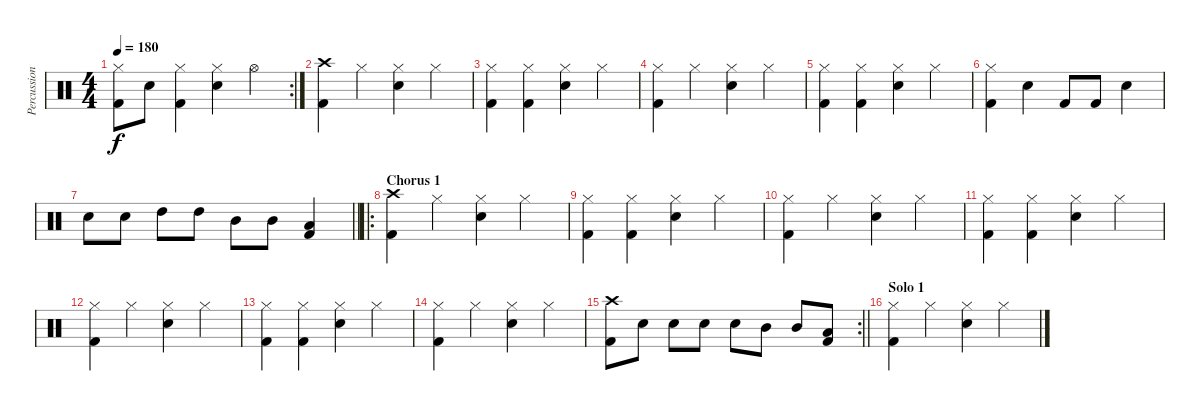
\track ("Percussion" "Percussion") {instrument percussion}
\staff {score}
\articulation defaults
\rc 2
\ts (4 4)
\tempo 180
\clef neutral
\ks c
("Hi-Hat (closed)" "Kick (hit) 2").8{dy f} "Snare (hit) 2".8 ("Hi-Hat (closed)" "Kick (hit) 2").4 ("Hi-Hat (closed)" "Snare (hit) 2").4 "Hi-Hat (open)".4 |
("Crash high (hit)" "Kick (hit) 2").4 "Hi-Hat (closed)".4 ("Hi-Hat (closed)" "Snare (hit) 2").4 "Hi-Hat (closed)".4 |
("Hi-Hat (closed)" "Kick (hit) 2").4 ("Hi-Hat (closed)" "Kick (hit) 2").4 ("Hi-Hat (closed)" "Snare (hit) 2").4 "Hi-Hat (closed)".4 |
("Hi-Hat (closed)" "Kick (hit) 2").4 "Hi-Hat (closed)".4 ("Hi-Hat (closed)" "Snare (hit) 2").4 "Hi-Hat (closed)".4 |
("Hi-Hat (closed)" "Kick (hit) 2").4 ("Hi-Hat (closed)" "Kick (hit) 2").4 ("Hi-Hat (closed)" "Snare (hit) 2").4 "Hi-Hat (closed)".4 |
("Hi-Hat (closed)" "Kick (hit) 2").4 "Snare (hit) 2".4 "Kick (hit) 2".8 "Kick (hit) 2".8 "Snare (hit) 2".4 |
\barLineRight lightlight "Snare (hit) 2".8 "Snare (hit) 2".8 "High Tom (hit)".8 "High Tom (hit)".8 "Mid Tom (hit)".8 "Mid Tom (hit)".8
("Kick (hit) 2" "Low Tom (hit)").4 |
\ro
\section ("" "Chorus 1")
("Crash high (hit)" "Kick (hit) 2").4 "Hi-Hat (closed)".4 ("Hi-Hat (closed)" "Snare (hit) 2").4 "Hi-Hat (closed)".4 |
("Hi-Hat (closed)" "Kick (hit) 2").4 ("Hi-Hat (closed)" "Kick (hit) 2").4 ("Hi-Hat (closed)" "Snare (hit) 2").4 "Hi-Hat (closed)".4 |
("Hi-Hat (closed)" "Kick (hit) 2").4 "Hi-Hat (closed)".4 ("Hi-Hat (closed)" "Snare (hit) 2").4 "Hi-Hat (closed)".4 |
("Hi-Hat (closed)" "Kick (hit) 2").4 ("Hi-Hat (closed)" "Kick (hit) 2").4 ("Hi-Hat (closed)" "Snare (hit) 2").4 "Hi-Hat (closed)".4 |
("Hi-Hat (closed)" "Kick (hit) 2").4 "Hi-Hat (closed)".4 ("Hi-Hat (closed)" "Snare (hit) 2").4 "Hi-Hat (closed)".4 |
("Hi-Hat (closed)" "Kick (hit) 2").4 ("Hi-Hat (closed)" "Kick (hit) 2").4 ("Hi-Hat (closed)" "Snare (hit) 2").4 "Hi-Hat (closed)".4 |
("Hi-Hat (closed)" "Kick (hit) 2").4 "Hi-Hat (closed)".4 ("Hi-Hat (closed)" "Snare (hit) 2").4 "Hi-Hat (closed)".4 |
\rc 2
\barLineRight lightlight
("Crash high (hit)" "Kick (hit) 2").8 "Snare (hit) 2".8 "Snare (hit) 2".8 "Snare (hit) 2".8 "Snare (hit) 2".8 "Mid Tom (hit)".8 "Mid Tom (hit)".8 ("Kick (hit) 2" "Low Tom (hit)").8 |
\section ("" "Solo 1")
("Hi-Hat (closed)" "Kick (hit) 2").4 "Hi-Hat (closed)".4 ("Hi-Hat (closed)" "Snare (hit) 2").4 "Hi-Hat (closed)".4
